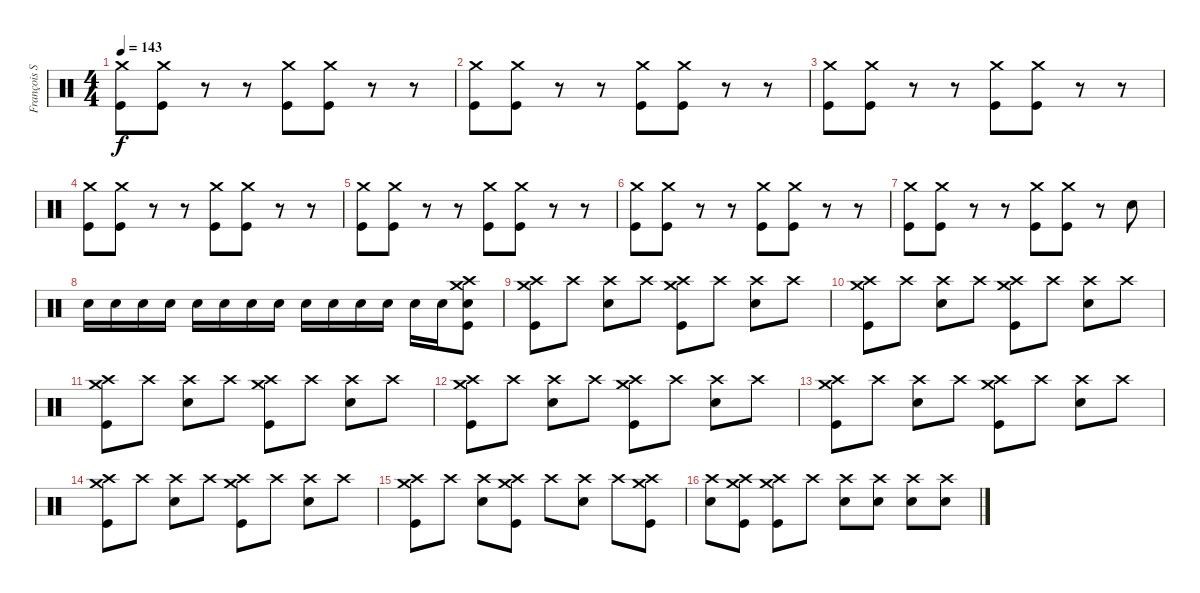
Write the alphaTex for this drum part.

\track ("François Soulier" "François S") {instrument percussion}
\staff {score}
\articulation defaults
\ts (4 4)
\tempo 143
\clef neutral
\ks c
("Crash medium (hit)" "Kick (hit)").8{dy f} ("Crash medium (hit)" "Kick (hit)").8 r.8 r.8 ("Crash medium (hit)" "Kick (hit)").8 ("Crash medium (hit)" "Kick (hit)").8 r.8 r.8 |
("Crash medium (hit)" "Kick (hit)").8 ("Crash medium (hit)" "Kick (hit)").8 r.8 r.8 ("Crash medium (hit)" "Kick (hit)").8 ("Crash medium (hit)" "Kick (hit)").8 r.8 r.8 |
("Crash medium (hit)" "Kick (hit)").8 ("Crash medium (hit)" "Kick (hit)").8 r.8 r.8 ("Crash medium (hit)" "Kick (hit)").8 ("Crash medium (hit)" "Kick (hit)").8 r.8 r.8 |
("Crash medium (hit)" "Kick (hit)").8 ("Crash medium (hit)" "Kick (hit)").8 r.8 r.8 ("Crash medium (hit)" "Kick (hit)").8 ("Crash medium (hit)" "Kick (hit)").8 r.8 r.8 |
("Crash medium (hit)" "Kick (hit)").8 ("Crash medium (hit)" "Kick (hit)").8 r.8 r.8 ("Crash medium (hit)" "Kick (hit)").8 ("Crash medium (hit)" "Kick (hit)").8 r.8 r.8 |
("Crash medium (hit)" "Kick (hit)").8 ("Crash medium (hit)" "Kick (hit)").8 r.8 r.8 ("Crash medium (hit)" "Kick (hit)").8 ("Crash medium (hit)" "Kick (hit)").8 r.8 r.8 |
("Crash medium (hit)" "Kick (hit)").8 ("Crash medium (hit)" "Kick (hit)").8 r.8 r.8 ("Crash medium (hit)" "Kick (hit)").8 ("Crash medium (hit)" "Kick (hit)").8 r.8 "Snare (hit) 2".8 |
"Snare (hit) 2".16 "Snare (hit) 2".16 "Snare (hit) 2".16 "Snare (hit) 2".16 "Snare (hit) 2".16 "Snare (hit) 2".16 "Snare (hit) 2".16 "Snare (hit) 2".16 "Snare (hit) 2".16 "Snare (hit) 2".16 "Snare (hit) 2".16 "Snare (hit) 2".16 "Snare (hit) 2".16 "Snare (hit) 2".16 ("Crash medium (hit)" "Crash high (hit)" "Snare (hit) 2" "Kick (hit)").8 |
("Crash high (hit)" "Crash medium (hit)" "Kick (hit)").8 "Crash high (hit)".8 ("Crash high (hit)" "Snare (hit) 2").8 "Crash high (hit)".8 ("Crash high (hit)" "Crash medium (hit)" "Kick (hit)").8 "Crash high (hit)".8 ("Crash high (hit)" "Snare (hit) 2").8 "Crash high (hit)".8 |
("Crash high (hit)" "Crash medium (hit)" "Kick (hit)").8 "Crash high (hit)".8 ("Crash high (hit)" "Snare (hit) 2").8 "Crash high (hit)".8 ("Crash high (hit)" "Crash medium (hit)" "Kick (hit)").8 "Crash high (hit)".8 ("Crash high (hit)" "Snare (hit) 2").8 "Crash high (hit)".8 |
("Crash high (hit)" "Crash medium (hit)" "Kick (hit)").8 "Crash high (hit)".8 ("Crash high (hit)" "Snare (hit) 2").8 "Crash high (hit)".8 ("Crash high (hit)" "Crash medium (hit)" "Kick (hit)").8 "Crash high (hit)".8 ("Crash high (hit)" "Snare (hit) 2").8 "Crash high (hit)".8 |
("Crash high (hit)" "Crash medium (hit)" "Kick (hit)").8 "Crash high (hit)".8 ("Crash high (hit)" "Snare (hit) 2").8 "Crash high (hit)".8 ("Crash high (hit)" "Crash medium (hit)" "Kick (hit)").8 "Crash high (hit)".8 ("Crash high (hit)" "Snare (hit) 2").8 "Crash high (hit)".8 |
("Crash high (hit)" "Crash medium (hit)" "Kick (hit)").8 "Crash high (hit)".8 ("Crash high (hit)" "Snare (hit) 2").8 "Crash high (hit)".8 ("Crash high (hit)" "Crash medium (hit)" "Kick (hit)").8 "Crash high (hit)".8 ("Crash high (hit)" "Snare (hit) 2").8 "Crash high (hit)".8 |
("Crash high (hit)" "Crash medium (hit)" "Kick (hit)").8 "Crash high (hit)".8 ("Crash high (hit)" "Snare (hit) 2").8 "Crash high (hit)".8 ("Crash high (hit)" "Crash medium (hit)" "Kick (hit)").8 "Crash high (hit)".8 ("Crash high (hit)" "Snare (hit) 2").8 "Crash high (hit)".8 |
("Crash high (hit)" "Crash medium (hit)" "Kick (hit)").8 "Crash high (hit)".8 ("Crash high (hit)" "Snare (hit) 2").8 ("Crash high (hit)" "Crash medium (hit)" "Kick (hit)").8 "Crash high (hit)".8 ("Crash high (hit)" "Snare (hit) 2").8 "Crash high (hit)".8 ("Crash high (hit)" "Crash medium (hit)" "Kick (hit)").8 |
("Crash high (hit)" "Snare (hit) 2").8 ("Crash high (hit)" "Crash medium (hit)" "Kick (hit)").8 ("Crash high (hit)" "Crash medium (hit)" "Kick (hit)").8 "Crash high (hit)".8 ("Crash high (hit)" "Snare (hit) 2").8 ("Crash high (hit)" "Snare (hit) 2").8 ("Crash high (hit)" "Snare (hit) 2").8 ("Crash high (hit)" "Snare (hit) 2").8
